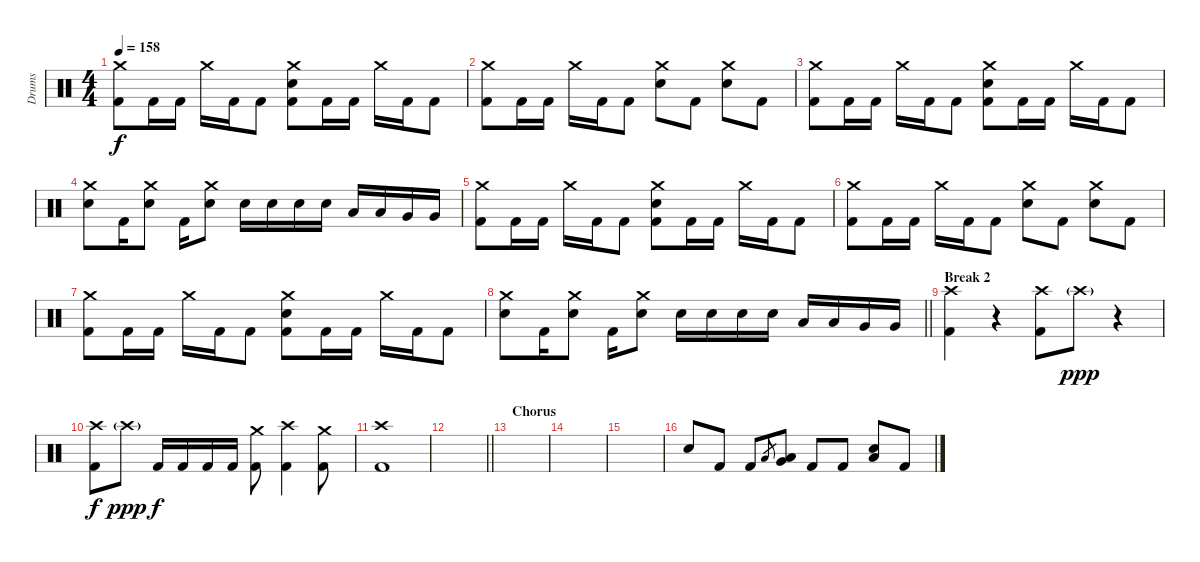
\track ("Drums" "Drums") {instrument percussion}
\staff {score}
\articulation defaults
\ts (4 4)
\tempo 158
\clef neutral
\ks c
("Crash medium (hit)" "Kick (hit) 2").8{dy f} "Kick (hit) 2".16 "Kick (hit) 2".16 "Crash medium (hit)".16 "Kick (hit) 2".16 "Kick (hit) 2".8 ("Crash medium (hit)" "Snare (hit) 2" "Kick (hit) 2").8 "Kick (hit) 2".16 "Kick (hit) 2".16 "Crash medium (hit)".16 "Kick (hit) 2".16 "Kick (hit) 2".8 |
("Crash medium (hit)" "Kick (hit) 2").8 "Kick (hit) 2".16 "Kick (hit) 2".16 "Crash medium (hit)".16 "Kick (hit) 2".16 "Kick (hit) 2".8 ("Crash medium (hit)" "Snare (hit) 2").8 "Kick (hit) 2".8 ("Crash medium (hit)" "Snare (hit) 2").8 "Kick (hit) 2".8 |
("Crash medium (hit)" "Kick (hit) 2").8 "Kick (hit) 2".16 "Kick (hit) 2".16 "Crash medium (hit)".16 "Kick (hit) 2".16 "Kick (hit) 2".8 ("Crash medium (hit)" "Snare (hit) 2" "Kick (hit) 2").8 "Kick (hit) 2".16 "Kick (hit) 2".16 "Crash medium (hit)".16 "Kick (hit) 2".16 "Kick (hit) 2".8 |
("Crash medium (hit)" "Snare (hit) 2").8 "Kick (hit) 2".16 ("Crash medium (hit)" "Snare (hit) 2").8 "Kick (hit) 2".16 ("Crash medium (hit)" "Snare (hit) 2").8 "Snare (hit) 2".16 "Snare (hit) 2".16 "Snare (hit) 2".16 "Snare (hit) 2".16 "Low Tom (hit)".16 "Low Tom (hit)".16 "Very Low Tom (hit)".16 "Very Low Tom (hit)".16 |
("Crash medium (hit)" "Kick (hit) 2").8 "Kick (hit) 2".16 "Kick (hit) 2".16 "Crash medium (hit)".16 "Kick (hit) 2".16 "Kick (hit) 2".8 ("Crash medium (hit)" "Snare (hit) 2" "Kick (hit) 2").8 "Kick (hit) 2".16 "Kick (hit) 2".16 "Crash medium (hit)".16 "Kick (hit) 2".16 "Kick (hit) 2".8 |
("Crash medium (hit)" "Kick (hit) 2").8 "Kick (hit) 2".16 "Kick (hit) 2".16 "Crash medium (hit)".16 "Kick (hit) 2".16 "Kick (hit) 2".8 ("Crash medium (hit)" "Snare (hit) 2").8 "Kick (hit) 2".8 ("Crash medium (hit)" "Snare (hit) 2").8 "Kick (hit) 2".8 |
("Crash medium (hit)" "Kick (hit) 2").8 "Kick (hit) 2".16 "Kick (hit) 2".16 "Crash medium (hit)".16 "Kick (hit) 2".16 "Kick (hit) 2".8 ("Crash medium (hit)" "Snare (hit) 2" "Kick (hit) 2").8 "Kick (hit) 2".16 "Kick (hit) 2".16 "Crash medium (hit)".16 "Kick (hit) 2".16 "Kick (hit) 2".8 |
\barLineRight lightlight
("Crash medium (hit)" "Snare (hit) 2").8 "Kick (hit) 2".16 ("Crash medium (hit)" "Snare (hit) 2").8 "Kick (hit) 2".16 ("Crash medium (hit)" "Snare (hit) 2").8 "Snare (hit) 2".16 "Snare (hit) 2".16 "Snare (hit) 2".16 "Snare (hit) 2".16 "Low Tom (hit)".16 "Low Tom (hit)".16 "Very Low Tom (hit)".16 "Very Low Tom (hit)".16 |
\section ("" "Break 2")
("Crash high (hit)" "Kick (hit) 2").4 r.4 ("Crash high (hit)" "Kick (hit) 2").8 "Crash high (hit)"{g}.8{dy ppp} r.4 |
("Crash high (hit)" "Kick (hit) 2").8{dy f} "Crash high (hit)"{g}.8{dy ppp} "Kick (hit) 2".16{dy f} "Kick (hit) 2".16 "Kick (hit) 2".16 "Kick (hit) 2".16 ("Crash medium (hit)" "Kick (hit) 2").8 ("Crash high (hit)" "Kick (hit) 2").4 ("Crash medium (hit)" "Kick (hit) 2").8 |
("Crash high (hit)" "Kick (hit) 2").1 |
\barLineRight lightlight
|
\section ("" "Chorus")
|
|
|
"Snare (hit) 2".8 "Kick (hit) 2".8 "Kick (hit) 2".8 "Low Tom (hit)".8{gr} ("Low Tom (hit)" "Very Low Tom (hit)").8 "Kick (hit) 2".8 "Kick (hit) 2".8 ("Low Floor Tom (hit)" "Snare (hit) 2").8 "Kick (hit) 2".8
